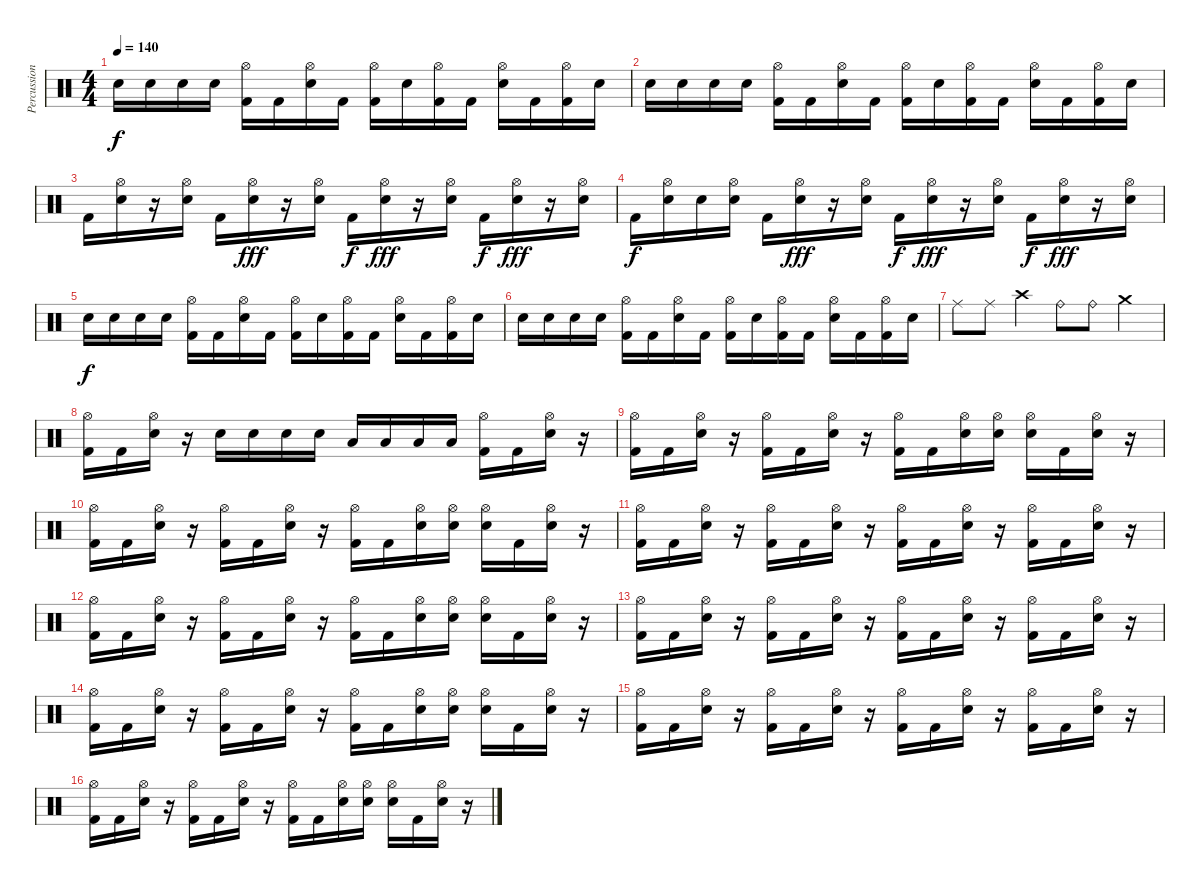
\track ("Percussions" "Percussion") {instrument percussion}
\staff {score}
\articulation defaults
\ts (4 4)
\tempo 140
\clef neutral
\ks c "Electric Snare (hit)".16{dy f} "Electric Snare (hit)".16 "Electric Snare (hit)".16 "Electric Snare (hit)".16
("Hi-Hat (open)" "Kick (hit) 2").16 "Kick (hit) 2".16 ("Hi-Hat (open)" "Electric Snare (hit)").16 "Kick (hit) 2".16 ("Hi-Hat (open)" "Kick (hit) 2").16 "Electric Snare (hit)".16 ("Hi-Hat (open)" "Kick (hit) 2").16 "Kick (hit) 2".16 ("Hi-Hat (open)" "Electric Snare (hit)").16 "Kick (hit) 2".16 ("Hi-Hat (open)" "Kick (hit) 2").16 "Electric Snare (hit)".16 |
"Electric Snare (hit)".16 "Electric Snare (hit)".16 "Electric Snare (hit)".16 "Electric Snare (hit)".16 ("Hi-Hat (open)" "Kick (hit) 2").16 "Kick (hit) 2".16 ("Hi-Hat (open)" "Electric Snare (hit)").16 "Kick (hit) 2".16 ("Hi-Hat (open)" "Kick (hit) 2").16 "Electric Snare (hit)".16 ("Hi-Hat (open)" "Kick (hit) 2").16 "Kick (hit) 2".16 ("Hi-Hat (open)" "Electric Snare (hit)").16 "Kick (hit) 2".16 ("Hi-Hat (open)" "Kick (hit) 2").16 "Electric Snare (hit)".16 |
"Kick (hit) 2".16{volume 13} ("Electric Snare (hit)" "Hi-Hat (open)").16 r.16 ("Electric Snare (hit)" "Hi-Hat (open)").16 "Kick (hit) 2".16 ("Electric Snare (hit)" "Hi-Hat (open)").16{dy fff} r.16 ("Electric Snare (hit)" "Hi-Hat (open)").16 "Kick (hit) 2".16{dy f} ("Electric Snare (hit)" "Hi-Hat (open)").16{dy fff} r.16 ("Electric Snare (hit)" "Hi-Hat (open)").16 "Kick (hit) 2".16{dy f} ("Electric Snare (hit)" "Hi-Hat (open)").16{dy fff} r.16 ("Electric Snare (hit)" "Hi-Hat (open)").16 |
"Kick (hit) 2".16{dy f volume 13} ("Electric Snare (hit)" "Hi-Hat (open)").16 "Electric Snare (hit)".16 ("Electric Snare (hit)" "Hi-Hat (open)").16 "Kick (hit) 2".16 ("Electric Snare (hit)" "Hi-Hat (open)").16{dy fff} r.16 ("Electric Snare (hit)" "Hi-Hat (open)").16 "Kick (hit) 2".16{dy f} ("Electric Snare (hit)" "Hi-Hat (open)").16{dy fff} r.16 ("Electric Snare (hit)" "Hi-Hat (open)").16 "Kick (hit) 2".16{dy f} ("Electric Snare (hit)" "Hi-Hat (open)").16{dy fff} r.16 ("Electric Snare (hit)" "Hi-Hat (open)").16 |
"Electric Snare (hit)".16{dy f} "Electric Snare (hit)".16 "Electric Snare (hit)".16 "Electric Snare (hit)".16 ("Hi-Hat (open)" "Kick (hit) 2").16 "Kick (hit) 2".16 ("Hi-Hat (open)" "Electric Snare (hit)").16 "Kick (hit) 2".16 ("Hi-Hat (open)" "Kick (hit) 2").16 "Electric Snare (hit)".16 ("Hi-Hat (open)" "Kick (hit) 2").16 "Kick (hit) 2".16 ("Hi-Hat (open)" "Electric Snare (hit)").16 "Kick (hit) 2".16 ("Hi-Hat (open)" "Kick (hit) 2").16 "Electric Snare (hit)".16 |
"Electric Snare (hit)".16 "Electric Snare (hit)".16 "Electric Snare (hit)".16 "Electric Snare (hit)".16 ("Hi-Hat (open)" "Kick (hit) 2").16 "Kick (hit) 2".16 ("Hi-Hat (open)" "Electric Snare (hit)").16 "Kick (hit) 2".16 ("Hi-Hat (open)" "Kick (hit) 2").16 "Electric Snare (hit)".16 ("Hi-Hat (open)" "Kick (hit) 2").16 "Kick (hit) 2".16 ("Hi-Hat (open)" "Electric Snare (hit)").16 "Kick (hit) 2".16 ("Hi-Hat (open)" "Kick (hit) 2").16 "Electric Snare (hit)".16 |
"Ride (middle)".8 "Ride (middle)".8 "Crash high (hit)".4 "Ride (bell)".8 "Ride (bell)".8 "Crash medium (hit)".4 |
("Kick (hit) 2" "Hi-Hat (open)").16 "Kick (hit) 2".16 ("Electric Snare (hit)" "Hi-Hat (open)").16 r.16 "Electric Snare (hit)".16 "Electric Snare (hit)".16 "Electric Snare (hit)".16 "Electric Snare (hit)".16 "Low Tom (hit)".16 "Low Tom (hit)".16 "Low Tom (hit)".16 "Low Tom (hit)".16 ("Kick (hit) 2" "Hi-Hat (open)").16 "Kick (hit) 2".16 ("Electric Snare (hit)" "Hi-Hat (open)").16 r.16 |
("Kick (hit) 2" "Hi-Hat (open)").16 "Kick (hit) 2".16 ("Electric Snare (hit)" "Hi-Hat (open)").16 r.16 ("Kick (hit) 2" "Hi-Hat (open)").16 "Kick (hit) 2".16 ("Electric Snare (hit)" "Hi-Hat (open)").16 r.16 ("Kick (hit) 2" "Hi-Hat (open)").16 "Kick (hit) 2".16 ("Electric Snare (hit)" "Hi-Hat (open)").16 ("Electric Snare (hit)" "Hi-Hat (open)").16 ("Electric Snare (hit)" "Hi-Hat (open)").16 "Kick (hit) 2".16 ("Electric Snare (hit)" "Hi-Hat (open)").16 r.16 |
("Kick (hit) 2" "Hi-Hat (open)").16 "Kick (hit) 2".16 ("Electric Snare (hit)" "Hi-Hat (open)").16 r.16 ("Kick (hit) 2" "Hi-Hat (open)").16 "Kick (hit) 2".16 ("Electric Snare (hit)" "Hi-Hat (open)").16 r.16 ("Kick (hit) 2" "Hi-Hat (open)").16 "Kick (hit) 2".16 ("Electric Snare (hit)" "Hi-Hat (open)").16 ("Electric Snare (hit)" "Hi-Hat (open)").16 ("Electric Snare (hit)" "Hi-Hat (open)").16 "Kick (hit) 2".16 ("Electric Snare (hit)" "Hi-Hat (open)").16 r.16 |
("Kick (hit) 2" "Hi-Hat (open)").16 "Kick (hit) 2".16 ("Electric Snare (hit)" "Hi-Hat (open)").16 r.16 ("Kick (hit) 2" "Hi-Hat (open)").16 "Kick (hit) 2".16 ("Electric Snare (hit)" "Hi-Hat (open)").16 r.16 ("Kick (hit) 2" "Hi-Hat (open)").16 "Kick (hit) 2".16 ("Electric Snare (hit)" "Hi-Hat (open)").16 r.16 ("Kick (hit) 2" "Hi-Hat (open)").16 "Kick (hit) 2".16 ("Electric Snare (hit)" "Hi-Hat (open)").16 r.16 |
("Kick (hit) 2" "Hi-Hat (open)").16 "Kick (hit) 2".16 ("Electric Snare (hit)" "Hi-Hat (open)").16 r.16 ("Kick (hit) 2" "Hi-Hat (open)").16 "Kick (hit) 2".16 ("Electric Snare (hit)" "Hi-Hat (open)").16 r.16 ("Kick (hit) 2" "Hi-Hat (open)").16 "Kick (hit) 2".16 ("Electric Snare (hit)" "Hi-Hat (open)").16 ("Electric Snare (hit)" "Hi-Hat (open)").16 ("Electric Snare (hit)" "Hi-Hat (open)").16 "Kick (hit) 2".16 ("Electric Snare (hit)" "Hi-Hat (open)").16 r.16 |
("Kick (hit) 2" "Hi-Hat (open)").16 "Kick (hit) 2".16 ("Electric Snare (hit)" "Hi-Hat (open)").16 r.16 ("Kick (hit) 2" "Hi-Hat (open)").16 "Kick (hit) 2".16 ("Electric Snare (hit)" "Hi-Hat (open)").16 r.16 ("Kick (hit) 2" "Hi-Hat (open)").16 "Kick (hit) 2".16 ("Electric Snare (hit)" "Hi-Hat (open)").16 r.16 ("Kick (hit) 2" "Hi-Hat (open)").16 "Kick (hit) 2".16 ("Electric Snare (hit)" "Hi-Hat (open)").16 r.16 |
("Kick (hit) 2" "Hi-Hat (open)").16 "Kick (hit) 2".16 ("Electric Snare (hit)" "Hi-Hat (open)").16 r.16 ("Kick (hit) 2" "Hi-Hat (open)").16 "Kick (hit) 2".16 ("Electric Snare (hit)" "Hi-Hat (open)").16 r.16 ("Kick (hit) 2" "Hi-Hat (open)").16 "Kick (hit) 2".16 ("Electric Snare (hit)" "Hi-Hat (open)").16 ("Electric Snare (hit)" "Hi-Hat (open)").16 ("Electric Snare (hit)" "Hi-Hat (open)").16 "Kick (hit) 2".16 ("Electric Snare (hit)" "Hi-Hat (open)").16 r.16 |
("Kick (hit) 2" "Hi-Hat (open)").16 "Kick (hit) 2".16 ("Electric Snare (hit)" "Hi-Hat (open)").16 r.16 ("Kick (hit) 2" "Hi-Hat (open)").16 "Kick (hit) 2".16 ("Electric Snare (hit)" "Hi-Hat (open)").16 r.16 ("Kick (hit) 2" "Hi-Hat (open)").16 "Kick (hit) 2".16 ("Electric Snare (hit)" "Hi-Hat (open)").16 r.16 ("Kick (hit) 2" "Hi-Hat (open)").16 "Kick (hit) 2".16 ("Electric Snare (hit)" "Hi-Hat (open)").16 r.16 |
("Kick (hit) 2" "Hi-Hat (open)").16 "Kick (hit) 2".16 ("Electric Snare (hit)" "Hi-Hat (open)").16 r.16 ("Kick (hit) 2" "Hi-Hat (open)").16 "Kick (hit) 2".16 ("Electric Snare (hit)" "Hi-Hat (open)").16 r.16 ("Kick (hit) 2" "Hi-Hat (open)").16 "Kick (hit) 2".16 ("Electric Snare (hit)" "Hi-Hat (open)").16 ("Electric Snare (hit)" "Hi-Hat (open)").16 ("Electric Snare (hit)" "Hi-Hat (open)").16 "Kick (hit) 2".16 ("Electric Snare (hit)" "Hi-Hat (open)").16 r.16
